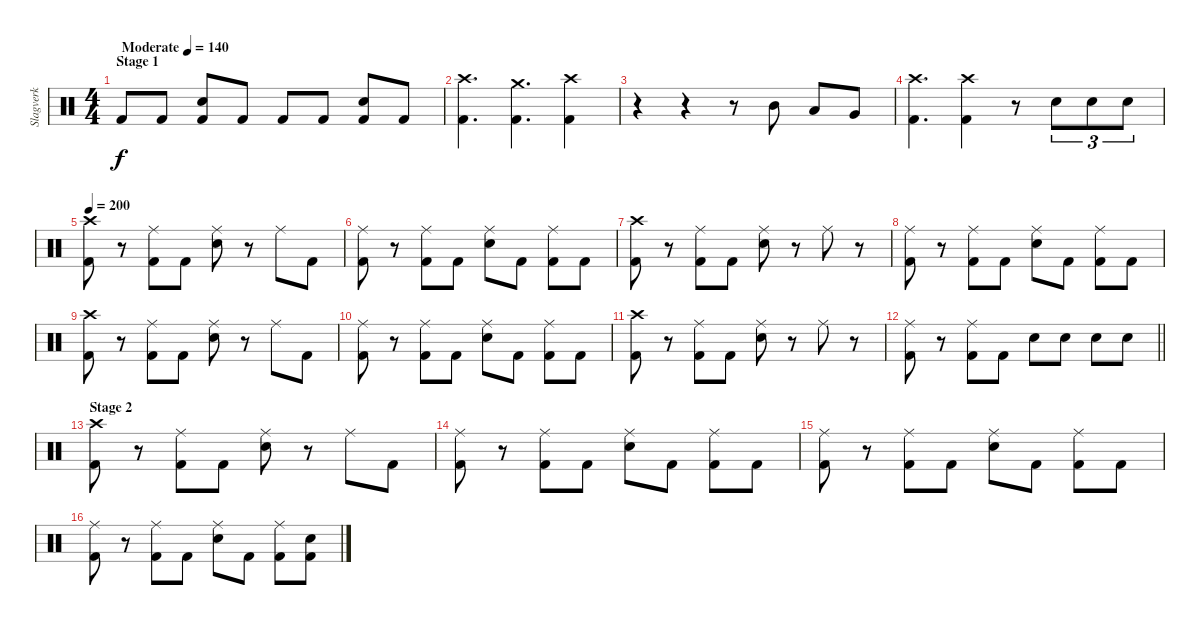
\track ("Slagverk" "Slagverk") {instrument percussion}
\staff {score}
\articulation defaults
\ts (4 4)
\section ("" "Stage 1")
\tempo (140 "Moderate")
\clef neutral
\ks c "Kick (hit) 2".8{dy f} "Kick (hit) 2".8
("Electric Snare (hit)" "Kick (hit) 2").8 "Kick (hit) 2".8 "Kick (hit) 2".8 "Kick (hit) 2".8 ("Electric Snare (hit)" "Kick (hit) 2").8 "Kick (hit) 2".8 |
("Crash high (hit)" "Kick (hit) 2").4{d} ("Crash medium (hit)" "Kick (hit) 2").4{d} ("Crash high (hit)" "Kick (hit) 2").4 |
r.4 r.4 r.8 "Mid Tom (hit)".8 "Low Tom (hit)".8 "Very Low Tom (hit)".8 |
("Crash high (hit)" "Kick (hit) 2").4{d} ("Crash high (hit)" "Kick (hit) 2").4 r.8 "Electric Snare (hit)".8{tu (3 2)} "Electric Snare (hit)".8{tu (3 2)} "Electric Snare (hit)".8{tu (3 2)} |
\tempo 200
("Crash high (hit)" "Kick (hit) 2").8 r.8 ("Ride (middle)" "Kick (hit) 2").8 "Kick (hit) 2".8 ("Ride (middle)" "Electric Snare (hit)").8 r.8 "Ride (middle)".8 "Kick (hit) 2".8 |
("Ride (middle)" "Kick (hit) 2").8 r.8 ("Ride (middle)" "Kick (hit) 2").8 "Kick (hit) 2".8 ("Ride (middle)" "Electric Snare (hit)").8 "Kick (hit) 2".8 ("Ride (middle)" "Kick (hit) 2").8 "Kick (hit) 2".8 |
("Crash high (hit)" "Kick (hit) 2").8 r.8 ("Ride (middle)" "Kick (hit) 2").8 "Kick (hit) 2".8 ("Ride (middle)" "Electric Snare (hit)").8 r.8 "Ride (middle)".8 r.8 |
("Ride (middle)" "Kick (hit) 2").8 r.8 ("Ride (middle)" "Kick (hit) 2").8 "Kick (hit) 2".8 ("Ride (middle)" "Electric Snare (hit)").8 "Kick (hit) 2".8 ("Ride (middle)" "Kick (hit) 2").8 "Kick (hit) 2".8 |
("Crash high (hit)" "Kick (hit) 2").8 r.8 ("Ride (middle)" "Kick (hit) 2").8 "Kick (hit) 2".8 ("Ride (middle)" "Electric Snare (hit)").8 r.8 "Ride (middle)".8 "Kick (hit) 2".8 |
("Ride (middle)" "Kick (hit) 2").8 r.8 ("Ride (middle)" "Kick (hit) 2").8 "Kick (hit) 2".8 ("Ride (middle)" "Electric Snare (hit)").8 "Kick (hit) 2".8 ("Ride (middle)" "Kick (hit) 2").8 "Kick (hit) 2".8 |
("Crash high (hit)" "Kick (hit) 2").8 r.8 ("Ride (middle)" "Kick (hit) 2").8 "Kick (hit) 2".8 ("Ride (middle)" "Electric Snare (hit)").8 r.8 "Ride (middle)".8 r.8 |
\barLineRight lightlight
("Ride (middle)" "Kick (hit) 2").8 r.8 ("Ride (middle)" "Kick (hit) 2").8 "Kick (hit) 2".8 "Electric Snare (hit)".8 "Electric Snare (hit)".8 "Electric Snare (hit)".8 "Electric Snare (hit)".8 |
\section ("" "Stage 2")
("Crash high (hit)" "Kick (hit) 2").8 r.8 ("Ride (middle)" "Kick (hit) 2").8 "Kick (hit) 2".8 ("Ride (middle)" "Electric Snare (hit)").8 r.8 "Ride (middle)".8 "Kick (hit) 2".8 |
("Ride (middle)" "Kick (hit) 2").8 r.8 ("Ride (middle)" "Kick (hit) 2").8 "Kick (hit) 2".8 ("Ride (middle)" "Electric Snare (hit)").8 "Kick (hit) 2".8 ("Ride (middle)" "Kick (hit) 2").8 "Kick (hit) 2".8 |
("Ride (middle)" "Kick (hit) 2").8 r.8 ("Ride (middle)" "Kick (hit) 2").8 "Kick (hit) 2".8 ("Ride (middle)" "Electric Snare (hit)").8 "Kick (hit) 2".8 ("Ride (middle)" "Kick (hit) 2").8 "Kick (hit) 2".8 |
("Ride (middle)" "Kick (hit) 2").8 r.8 ("Ride (middle)" "Kick (hit) 2").8 "Kick (hit) 2".8 ("Ride (middle)" "Electric Snare (hit)").8 "Kick (hit) 2".8 ("Ride (middle)" "Kick (hit) 2").8 ("Electric Snare (hit)" "Kick (hit) 2").8
